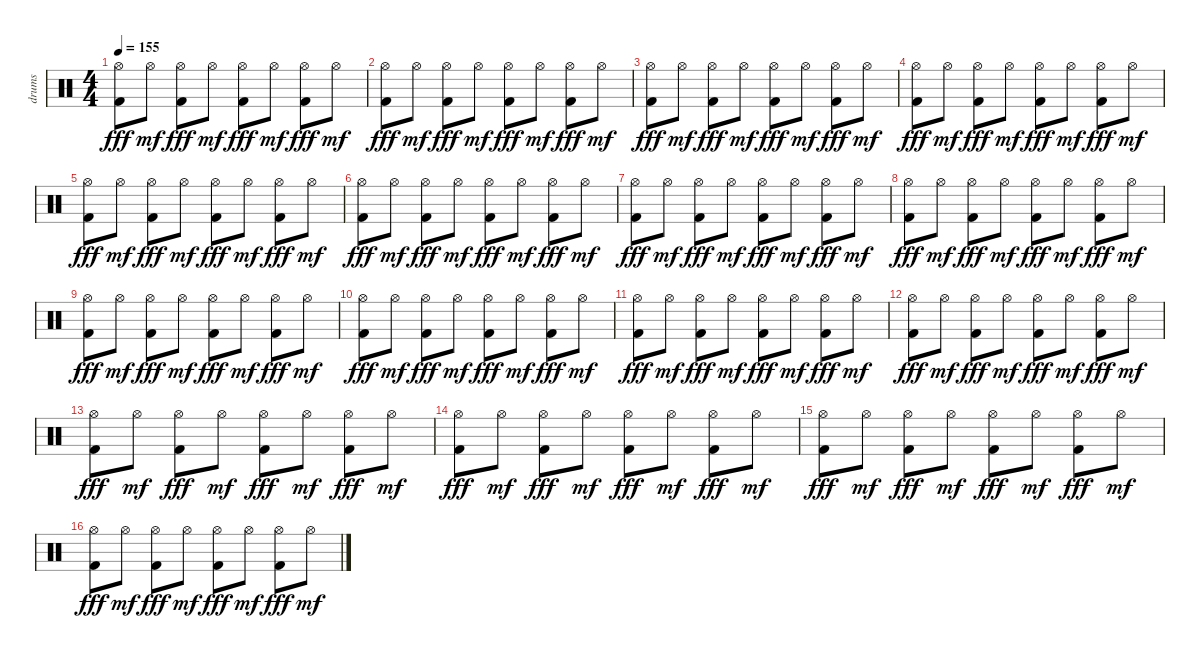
\track ("drums" "drums") {instrument percussion}
\staff {score}
\articulation defaults
\ts (4 4)
\tempo 155
\clef neutral
\ks c
("Hi-Hat (open)" "Kick (hit) 2").8{dy fff} "Hi-Hat (open)".8{dy mf} ("Hi-Hat (open)" "Kick (hit) 2").8{dy fff} "Hi-Hat (open)".8{dy mf} ("Hi-Hat (open)" "Kick (hit) 2").8{dy fff} "Hi-Hat (open)".8{dy mf} ("Hi-Hat (open)" "Kick (hit) 2").8{dy fff} "Hi-Hat (open)".8{dy mf} |
("Hi-Hat (open)" "Kick (hit) 2").8{dy fff} "Hi-Hat (open)".8{dy mf} ("Hi-Hat (open)" "Kick (hit) 2").8{dy fff} "Hi-Hat (open)".8{dy mf} ("Hi-Hat (open)" "Kick (hit) 2").8{dy fff} "Hi-Hat (open)".8{dy mf} ("Hi-Hat (open)" "Kick (hit) 2").8{dy fff} "Hi-Hat (open)".8{dy mf} |
("Hi-Hat (open)" "Kick (hit) 2").8{dy fff} "Hi-Hat (open)".8{dy mf} ("Hi-Hat (open)" "Kick (hit) 2").8{dy fff} "Hi-Hat (open)".8{dy mf} ("Hi-Hat (open)" "Kick (hit) 2").8{dy fff} "Hi-Hat (open)".8{dy mf} ("Hi-Hat (open)" "Kick (hit) 2").8{dy fff} "Hi-Hat (open)".8{dy mf} |
("Hi-Hat (open)" "Kick (hit) 2").8{dy fff} "Hi-Hat (open)".8{dy mf} ("Hi-Hat (open)" "Kick (hit) 2").8{dy fff} "Hi-Hat (open)".8{dy mf} ("Hi-Hat (open)" "Kick (hit) 2").8{dy fff} "Hi-Hat (open)".8{dy mf} ("Hi-Hat (open)" "Kick (hit) 2").8{dy fff} "Hi-Hat (open)".8{dy mf} |
("Hi-Hat (open)" "Kick (hit) 2").8{dy fff} "Hi-Hat (open)".8{dy mf} ("Hi-Hat (open)" "Kick (hit) 2").8{dy fff} "Hi-Hat (open)".8{dy mf} ("Hi-Hat (open)" "Kick (hit) 2").8{dy fff} "Hi-Hat (open)".8{dy mf} ("Hi-Hat (open)" "Kick (hit) 2").8{dy fff} "Hi-Hat (open)".8{dy mf} |
("Hi-Hat (open)" "Kick (hit) 2").8{dy fff} "Hi-Hat (open)".8{dy mf} ("Hi-Hat (open)" "Kick (hit) 2").8{dy fff} "Hi-Hat (open)".8{dy mf} ("Hi-Hat (open)" "Kick (hit) 2").8{dy fff} "Hi-Hat (open)".8{dy mf} ("Hi-Hat (open)" "Kick (hit) 2").8{dy fff} "Hi-Hat (open)".8{dy mf} |
("Hi-Hat (open)" "Kick (hit) 2").8{dy fff} "Hi-Hat (open)".8{dy mf} ("Hi-Hat (open)" "Kick (hit) 2").8{dy fff} "Hi-Hat (open)".8{dy mf} ("Hi-Hat (open)" "Kick (hit) 2").8{dy fff} "Hi-Hat (open)".8{dy mf} ("Hi-Hat (open)" "Kick (hit) 2").8{dy fff} "Hi-Hat (open)".8{dy mf} |
("Hi-Hat (open)" "Kick (hit) 2").8{dy fff} "Hi-Hat (open)".8{dy mf} ("Hi-Hat (open)" "Kick (hit) 2").8{dy fff} "Hi-Hat (open)".8{dy mf} ("Hi-Hat (open)" "Kick (hit) 2").8{dy fff} "Hi-Hat (open)".8{dy mf} ("Hi-Hat (open)" "Kick (hit) 2").8{dy fff} "Hi-Hat (open)".8{dy mf} |
("Hi-Hat (open)" "Kick (hit) 2").8{dy fff} "Hi-Hat (open)".8{dy mf} ("Hi-Hat (open)" "Kick (hit) 2").8{dy fff} "Hi-Hat (open)".8{dy mf} ("Hi-Hat (open)" "Kick (hit) 2").8{dy fff} "Hi-Hat (open)".8{dy mf} ("Hi-Hat (open)" "Kick (hit) 2").8{dy fff} "Hi-Hat (open)".8{dy mf} |
("Hi-Hat (open)" "Kick (hit) 2").8{dy fff} "Hi-Hat (open)".8{dy mf} ("Hi-Hat (open)" "Kick (hit) 2").8{dy fff} "Hi-Hat (open)".8{dy mf} ("Hi-Hat (open)" "Kick (hit) 2").8{dy fff} "Hi-Hat (open)".8{dy mf} ("Hi-Hat (open)" "Kick (hit) 2").8{dy fff} "Hi-Hat (open)".8{dy mf} |
("Hi-Hat (open)" "Kick (hit) 2").8{dy fff} "Hi-Hat (open)".8{dy mf} ("Hi-Hat (open)" "Kick (hit) 2").8{dy fff} "Hi-Hat (open)".8{dy mf} ("Hi-Hat (open)" "Kick (hit) 2").8{dy fff} "Hi-Hat (open)".8{dy mf} ("Hi-Hat (open)" "Kick (hit) 2").8{dy fff} "Hi-Hat (open)".8{dy mf} |
("Hi-Hat (open)" "Kick (hit) 2").8{dy fff} "Hi-Hat (open)".8{dy mf} ("Hi-Hat (open)" "Kick (hit) 2").8{dy fff} "Hi-Hat (open)".8{dy mf} ("Hi-Hat (open)" "Kick (hit) 2").8{dy fff} "Hi-Hat (open)".8{dy mf} ("Hi-Hat (open)" "Kick (hit) 2").8{dy fff} "Hi-Hat (open)".8{dy mf} |
("Hi-Hat (open)" "Kick (hit) 2").8{dy fff} "Hi-Hat (open)".8{dy mf} ("Hi-Hat (open)" "Kick (hit) 2").8{dy fff} "Hi-Hat (open)".8{dy mf} ("Hi-Hat (open)" "Kick (hit) 2").8{dy fff} "Hi-Hat (open)".8{dy mf} ("Hi-Hat (open)" "Kick (hit) 2").8{dy fff} "Hi-Hat (open)".8{dy mf} |
("Hi-Hat (open)" "Kick (hit) 2").8{dy fff} "Hi-Hat (open)".8{dy mf} ("Hi-Hat (open)" "Kick (hit) 2").8{dy fff} "Hi-Hat (open)".8{dy mf} ("Hi-Hat (open)" "Kick (hit) 2").8{dy fff} "Hi-Hat (open)".8{dy mf} ("Hi-Hat (open)" "Kick (hit) 2").8{dy fff} "Hi-Hat (open)".8{dy mf} |
("Hi-Hat (open)" "Kick (hit) 2").8{dy fff} "Hi-Hat (open)".8{dy mf} ("Hi-Hat (open)" "Kick (hit) 2").8{dy fff} "Hi-Hat (open)".8{dy mf} ("Hi-Hat (open)" "Kick (hit) 2").8{dy fff} "Hi-Hat (open)".8{dy mf} ("Hi-Hat (open)" "Kick (hit) 2").8{dy fff} "Hi-Hat (open)".8{dy mf} |
("Hi-Hat (open)" "Kick (hit) 2").8{dy fff} "Hi-Hat (open)".8{dy mf} ("Hi-Hat (open)" "Kick (hit) 2").8{dy fff} "Hi-Hat (open)".8{dy mf} ("Hi-Hat (open)" "Kick (hit) 2").8{dy fff} "Hi-Hat (open)".8{dy mf} ("Hi-Hat (open)" "Kick (hit) 2").8{dy fff} "Hi-Hat (open)".8{dy mf}
